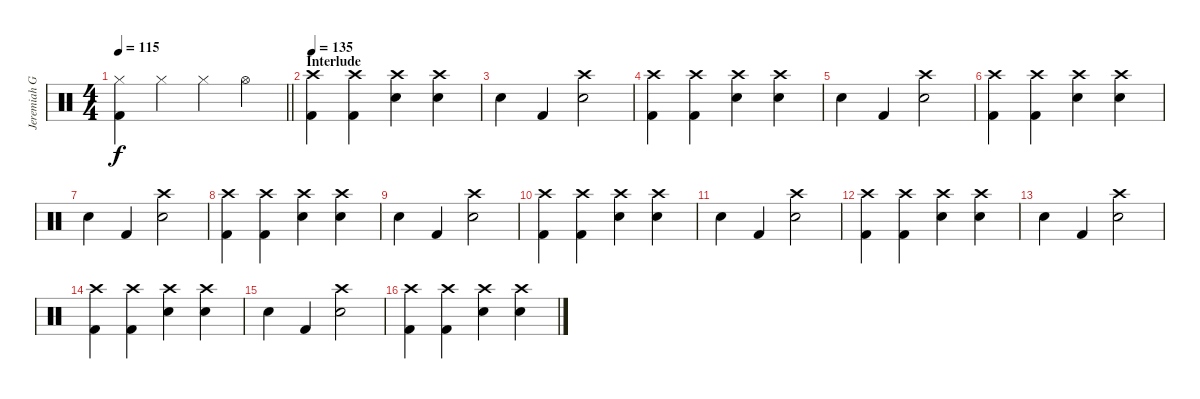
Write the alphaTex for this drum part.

\track ("Jeremiah Green" "Jeremiah G") {instrument percussion}
\staff {score}
\articulation defaults
\ts (4 4)
\tempo 115
\clef neutral
\barLineRight lightlight
\ks c
("Hi-Hat (closed)" "Kick (hit) 2").4{dy f} "Hi-Hat (closed)".4 "Hi-Hat (closed)".4 "Hi-Hat (open)".4 |
\section ("" "Interlude")
\tempo 135
("Crash high (hit)" "Kick (hit) 2").4 ("Crash high (hit)" "Kick (hit) 2").4 ("Crash high (hit)" "Electric Snare (hit)").4 ("Crash high (hit)" "Electric Snare (hit)").4 |
"Electric Snare (hit)".4 "Kick (hit) 2".4 ("Crash high (hit)" "Electric Snare (hit)").2 |
("Crash high (hit)" "Kick (hit) 2").4 ("Crash high (hit)" "Kick (hit) 2").4 ("Crash high (hit)" "Electric Snare (hit)").4 ("Crash high (hit)" "Electric Snare (hit)").4 |
"Electric Snare (hit)".4 "Kick (hit) 2".4 ("Crash high (hit)" "Electric Snare (hit)").2 |
("Crash high (hit)" "Kick (hit) 2").4 ("Crash high (hit)" "Kick (hit) 2").4 ("Crash high (hit)" "Electric Snare (hit)").4 ("Crash high (hit)" "Electric Snare (hit)").4 |
"Electric Snare (hit)".4 "Kick (hit) 2".4 ("Crash high (hit)" "Electric Snare (hit)").2 |
("Crash high (hit)" "Kick (hit) 2").4 ("Crash high (hit)" "Kick (hit) 2").4 ("Crash high (hit)" "Electric Snare (hit)").4 ("Crash high (hit)" "Electric Snare (hit)").4 |
"Electric Snare (hit)".4 "Kick (hit) 2".4 ("Crash high (hit)" "Electric Snare (hit)").2 |
("Crash high (hit)" "Kick (hit) 2").4 ("Crash high (hit)" "Kick (hit) 2").4 ("Crash high (hit)" "Electric Snare (hit)").4 ("Crash high (hit)" "Electric Snare (hit)").4 |
"Electric Snare (hit)".4 "Kick (hit) 2".4 ("Crash high (hit)" "Electric Snare (hit)").2 |
("Crash high (hit)" "Kick (hit) 2").4 ("Crash high (hit)" "Kick (hit) 2").4 ("Crash high (hit)" "Electric Snare (hit)").4 ("Crash high (hit)" "Electric Snare (hit)").4 |
"Electric Snare (hit)".4 "Kick (hit) 2".4 ("Crash high (hit)" "Electric Snare (hit)").2 |
("Crash high (hit)" "Kick (hit) 2").4 ("Crash high (hit)" "Kick (hit) 2").4 ("Crash high (hit)" "Electric Snare (hit)").4 ("Crash high (hit)" "Electric Snare (hit)").4 |
"Electric Snare (hit)".4 "Kick (hit) 2".4 ("Crash high (hit)" "Electric Snare (hit)").2 |
("Crash high (hit)" "Kick (hit) 2").4 ("Crash high (hit)" "Kick (hit) 2").4 ("Crash high (hit)" "Electric Snare (hit)").4 ("Crash high (hit)" "Electric Snare (hit)").4
